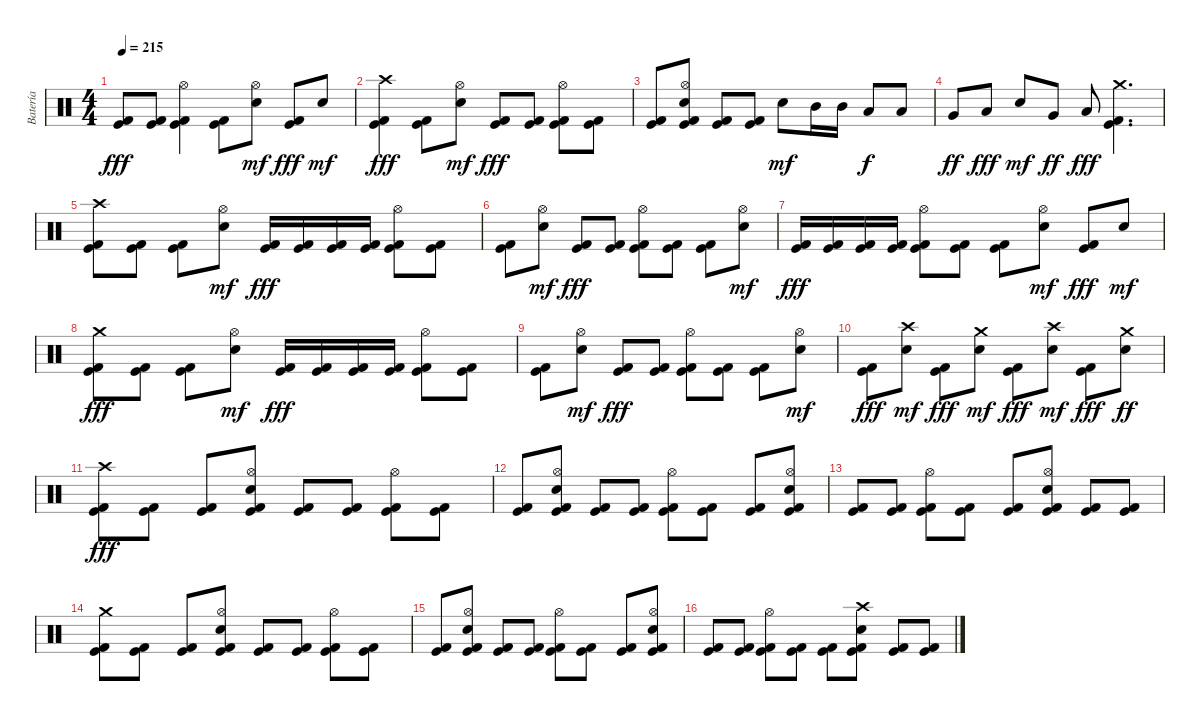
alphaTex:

\track ("Batería" "Batería") {instrument percussion}
\staff {score}
\articulation defaults
\ts (4 4)
\tempo 215
\clef neutral
\ks c
("Kick (hit) 2" "Kick (hit)").8{dy fff} ("Kick (hit) 2" "Kick (hit)").8 ("Hi-Hat (open)" "Kick (hit) 2" "Kick (hit)").4 ("Kick (hit) 2" "Kick (hit)").8 ("Hi-Hat (open)" "Electric Snare (hit)").8{dy mf} ("Kick (hit) 2" "Kick (hit)").8{dy fff} "Electric Snare (hit)".8{dy mf} |
("Crash high (hit)" "Kick (hit) 2" "Kick (hit)").4{dy fff} ("Kick (hit) 2" "Kick (hit)").8 ("Hi-Hat (open)" "Electric Snare (hit)").8{dy mf} ("Kick (hit) 2" "Kick (hit)").8{dy fff} ("Kick (hit) 2" "Kick (hit)").8 ("Hi-Hat (open)" "Kick (hit) 2" "Kick (hit)").8 ("Kick (hit) 2" "Kick (hit)").8 |
("Kick (hit) 2" "Kick (hit)").8 ("Hi-Hat (open)" "Electric Snare (hit)" "Kick (hit) 2" "Kick (hit)").8 ("Kick (hit) 2" "Kick (hit)").8 ("Kick (hit) 2" "Kick (hit)").8 "Electric Snare (hit)".8{dy mf} "Mid Tom (hit)".16 "Mid Tom (hit)".16 "Low Tom (hit)".8{dy f} "Low Tom (hit)".8 |
"Very Low Tom (hit)".8{dy ff} "Low Floor Tom (hit)".8{dy fff} "Electric Snare (hit)".8{dy mf} "Very Low Tom (hit)".8{dy ff} "Low Floor Tom (hit)".8{dy fff} ("Crash medium (hit)" "Kick (hit) 2" "Kick (hit)").4{d} |
("Crash high (hit)" "Kick (hit) 2" "Kick (hit)").8 ("Kick (hit) 2" "Kick (hit)").8 ("Kick (hit) 2" "Kick (hit)").8 ("Hi-Hat (open)" "Electric Snare (hit)").8{dy mf} ("Kick (hit) 2" "Kick (hit)").16{dy fff} ("Kick (hit) 2" "Kick (hit)").16 ("Kick (hit) 2" "Kick (hit)").16 ("Kick (hit) 2" "Kick (hit)").16 ("Hi-Hat (open)" "Kick (hit) 2" "Kick (hit)").8 ("Kick (hit) 2" "Kick (hit)").8 |
("Kick (hit) 2" "Kick (hit)").8 ("Hi-Hat (open)" "Electric Snare (hit)").8{dy mf} ("Kick (hit) 2" "Kick (hit)").8{dy fff} ("Kick (hit) 2" "Kick (hit)").8 ("Hi-Hat (open)" "Kick (hit) 2" "Kick (hit)").8 ("Kick (hit) 2" "Kick (hit)").8 ("Kick (hit) 2" "Kick (hit)").8 ("Hi-Hat (open)" "Electric Snare (hit)").8{dy mf} |
("Kick (hit) 2" "Kick (hit)").16{dy fff} ("Kick (hit) 2" "Kick (hit)").16 ("Kick (hit) 2" "Kick (hit)").16 ("Kick (hit) 2" "Kick (hit)").16 ("Hi-Hat (open)" "Kick (hit) 2" "Kick (hit)").8 ("Kick (hit) 2" "Kick (hit)").8 ("Kick (hit) 2" "Kick (hit)").8 ("Hi-Hat (open)" "Electric Snare (hit)").8{dy mf} ("Kick (hit) 2" "Kick (hit)").8{dy fff} "Electric Snare (hit)".8{dy mf} |
("Crash medium (hit)" "Kick (hit) 2" "Kick (hit)").8{dy fff} ("Kick (hit) 2" "Kick (hit)").8 ("Kick (hit) 2" "Kick (hit)").8 ("Hi-Hat (open)" "Electric Snare (hit)").8{dy mf} ("Kick (hit) 2" "Kick (hit)").16{dy fff} ("Kick (hit) 2" "Kick (hit)").16 ("Kick (hit) 2" "Kick (hit)").16 ("Kick (hit) 2" "Kick (hit)").16 ("Hi-Hat (open)" "Kick (hit) 2" "Kick (hit)").8 ("Kick (hit) 2" "Kick (hit)").8 |
("Kick (hit) 2" "Kick (hit)").8 ("Hi-Hat (open)" "Electric Snare (hit)").8{dy mf} ("Kick (hit) 2" "Kick (hit)").8{dy fff} ("Kick (hit) 2" "Kick (hit)").8 ("Hi-Hat (open)" "Kick (hit) 2" "Kick (hit)").8 ("Kick (hit) 2" "Kick (hit)").8 ("Kick (hit) 2" "Kick (hit)").8 ("Hi-Hat (open)" "Electric Snare (hit)").8{dy mf} |
("Kick (hit) 2" "Kick (hit)").8{dy fff} ("Crash high (hit)" "Electric Snare (hit)").8{dy mf} ("Kick (hit) 2" "Kick (hit)").8{dy fff} ("Crash medium (hit)" "Electric Snare (hit)").8{dy mf} ("Kick (hit) 2" "Kick (hit)").8{dy fff} ("Crash high (hit)" "Electric Snare (hit)").8{dy mf} ("Kick (hit) 2" "Kick (hit)").8{dy fff} ("Crash medium (hit)" "Electric Snare (hit)").8{dy ff} |
("Crash high (hit)" "Kick (hit) 2" "Kick (hit)").8{dy fff} ("Kick (hit) 2" "Kick (hit)").8 ("Kick (hit) 2" "Kick (hit)").8 ("Hi-Hat (open)" "Electric Snare (hit)" "Kick (hit) 2" "Kick (hit)").8 ("Kick (hit) 2" "Kick (hit)").8 ("Kick (hit) 2" "Kick (hit)").8 ("Hi-Hat (open)" "Kick (hit) 2" "Kick (hit)").8 ("Kick (hit) 2" "Kick (hit)").8 |
("Kick (hit) 2" "Kick (hit)").8 ("Hi-Hat (open)" "Electric Snare (hit)" "Kick (hit) 2" "Kick (hit)").8 ("Kick (hit) 2" "Kick (hit)").8 ("Kick (hit) 2" "Kick (hit)").8 ("Hi-Hat (open)" "Kick (hit) 2" "Kick (hit)").8 ("Kick (hit) 2" "Kick (hit)").8 ("Kick (hit) 2" "Kick (hit)").8 ("Hi-Hat (open)" "Electric Snare (hit)" "Kick (hit) 2" "Kick (hit)").8 |
("Kick (hit) 2" "Kick (hit)").8 ("Kick (hit) 2" "Kick (hit)").8 ("Hi-Hat (open)" "Kick (hit) 2" "Kick (hit)").8 ("Kick (hit) 2" "Kick (hit)").8 ("Kick (hit) 2" "Kick (hit)").8 ("Hi-Hat (open)" "Electric Snare (hit)" "Kick (hit) 2" "Kick (hit)").8 ("Kick (hit) 2" "Kick (hit)").8 ("Kick (hit) 2" "Kick (hit)").8 |
("Crash medium (hit)" "Kick (hit) 2" "Kick (hit)").8 ("Kick (hit) 2" "Kick (hit)").8 ("Kick (hit) 2" "Kick (hit)").8 ("Hi-Hat (open)" "Electric Snare (hit)" "Kick (hit) 2" "Kick (hit)").8 ("Kick (hit) 2" "Kick (hit)").8 ("Kick (hit) 2" "Kick (hit)").8 ("Hi-Hat (open)" "Kick (hit) 2" "Kick (hit)").8 ("Kick (hit) 2" "Kick (hit)").8 |
("Kick (hit) 2" "Kick (hit)").8 ("Hi-Hat (open)" "Electric Snare (hit)" "Kick (hit) 2" "Kick (hit)").8 ("Kick (hit) 2" "Kick (hit)").8 ("Kick (hit) 2" "Kick (hit)").8 ("Hi-Hat (open)" "Kick (hit) 2" "Kick (hit)").8 ("Kick (hit) 2" "Kick (hit)").8 ("Kick (hit) 2" "Kick (hit)").8 ("Hi-Hat (open)" "Electric Snare (hit)" "Kick (hit) 2" "Kick (hit)").8 |
("Kick (hit) 2" "Kick (hit)").8 ("Kick (hit) 2" "Kick (hit)").8 ("Hi-Hat (open)" "Kick (hit) 2" "Kick (hit)").8 ("Kick (hit) 2" "Kick (hit)").8 ("Kick (hit) 2" "Kick (hit)").8 ("Crash high (hit)" "Electric Snare (hit)" "Kick (hit) 2" "Kick (hit)").8 ("Kick (hit) 2" "Kick (hit)").8 ("Kick (hit) 2" "Kick (hit)").8
